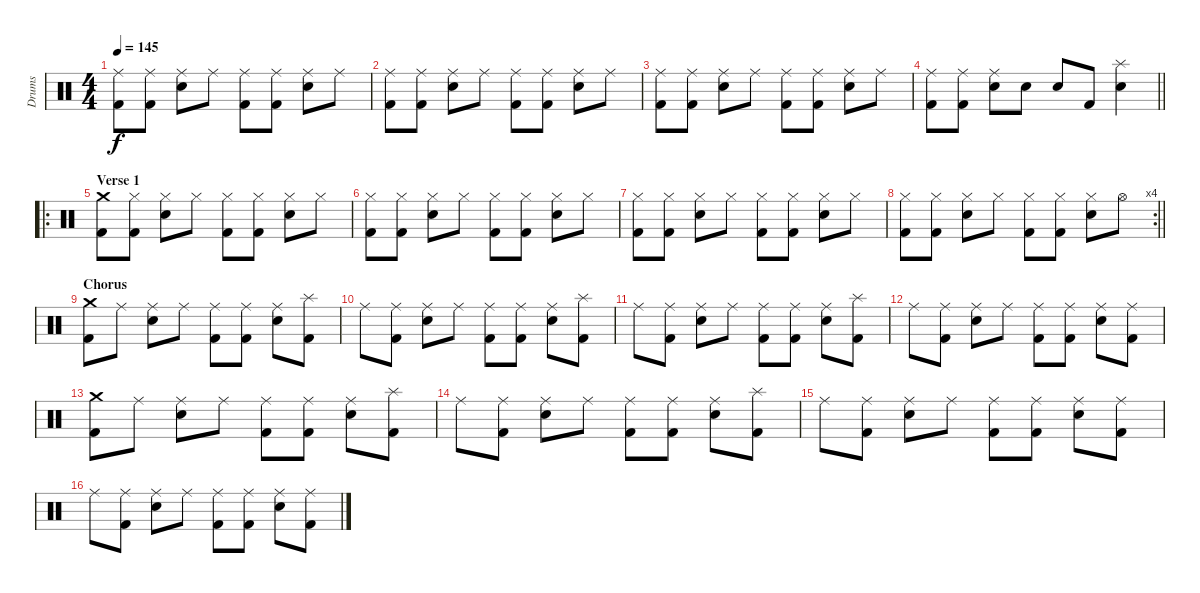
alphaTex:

\track ("Drums" "Drums") {instrument percussion}
\staff {score}
\articulation defaults
\ts (4 4)
\tempo 145
\clef neutral
\ks c
("Ride (middle)" "Kick (hit) 2").8{dy f} ("Ride (middle)" "Kick (hit) 2").8 ("Ride (middle)" "Snare (hit) 2").8 "Ride (middle)".8 ("Ride (middle)" "Kick (hit) 2").8 ("Ride (middle)" "Kick (hit) 2").8 ("Ride (middle)" "Snare (hit) 2").8 "Ride (middle)".8 |
("Ride (middle)" "Kick (hit) 2").8 ("Ride (middle)" "Kick (hit) 2").8 ("Ride (middle)" "Snare (hit) 2").8 "Ride (middle)".8 ("Ride (middle)" "Kick (hit) 2").8 ("Ride (middle)" "Kick (hit) 2").8 ("Ride (middle)" "Snare (hit) 2").8 "Ride (middle)".8 |
("Ride (middle)" "Kick (hit) 2").8 ("Ride (middle)" "Kick (hit) 2").8 ("Ride (middle)" "Snare (hit) 2").8 "Ride (middle)".8 ("Ride (middle)" "Kick (hit) 2").8 ("Ride (middle)" "Kick (hit) 2").8 ("Ride (middle)" "Snare (hit) 2").8 "Ride (middle)".8 |
\barLineRight lightlight
("Ride (middle)" "Kick (hit) 2").8 ("Ride (middle)" "Kick (hit) 2").8 ("Ride (middle)" "Snare (hit) 2").8 "Snare (hit) 2".8 "Snare (hit) 2".8 "Kick (hit) 2".8 ("Splash (hit)" "Snare (hit) 2").4 |
\ro
\section ("" "Verse 1")
("Crash medium (hit)" "Kick (hit) 2").8 ("Hi-Hat (closed)" "Kick (hit) 2").8 ("Hi-Hat (closed)" "Snare (hit) 2").8 "Hi-Hat (closed)".8 ("Hi-Hat (closed)" "Kick (hit) 2").8 ("Hi-Hat (closed)" "Kick (hit) 2").8 ("Hi-Hat (closed)" "Snare (hit) 2").8 "Hi-Hat (closed)".8 |
("Hi-Hat (closed)" "Kick (hit) 2").8 ("Hi-Hat (closed)" "Kick (hit) 2").8 ("Hi-Hat (closed)" "Snare (hit) 2").8 "Hi-Hat (closed)".8 ("Hi-Hat (closed)" "Kick (hit) 2").8 ("Hi-Hat (closed)" "Kick (hit) 2").8 ("Hi-Hat (closed)" "Snare (hit) 2").8 "Hi-Hat (closed)".8 |
("Hi-Hat (closed)" "Kick (hit) 2").8 ("Hi-Hat (closed)" "Kick (hit) 2").8 ("Hi-Hat (closed)" "Snare (hit) 2").8 "Hi-Hat (closed)".8 ("Hi-Hat (closed)" "Kick (hit) 2").8 ("Hi-Hat (closed)" "Kick (hit) 2").8 ("Hi-Hat (closed)" "Snare (hit) 2").8 "Hi-Hat (closed)".8 |
\rc 4
\barLineRight lightlight
("Hi-Hat (closed)" "Kick (hit) 2").8 ("Hi-Hat (closed)" "Kick (hit) 2").8 ("Hi-Hat (closed)" "Snare (hit) 2").8 "Hi-Hat (closed)".8 ("Hi-Hat (closed)" "Kick (hit) 2").8 ("Hi-Hat (closed)" "Kick (hit) 2").8 ("Hi-Hat (closed)" "Snare (hit) 2").8 "Hi-Hat (open)".8 |
\section ("" "Chorus")
("Crash medium (hit)" "Kick (hit) 2").8 "Ride (middle)".8 ("Ride (middle)" "Snare (hit) 2").8 "Ride (middle)".8 ("Ride (middle)" "Kick (hit) 2").8 ("Ride (middle)" "Kick (hit) 2").8 ("Ride (middle)" "Snare (hit) 2").8 ("Splash (hit)" "Kick (hit) 2").8 |
"Ride (middle)".8 ("Ride (middle)" "Kick (hit) 2").8 ("Ride (middle)" "Snare (hit) 2").8 "Ride (middle)".8 ("Ride (middle)" "Kick (hit) 2").8 ("Ride (middle)" "Kick (hit) 2").8 ("Ride (middle)" "Snare (hit) 2").8 ("Splash (hit)" "Kick (hit) 2").8 |
"Ride (middle)".8 ("Ride (middle)" "Kick (hit) 2").8 ("Ride (middle)" "Snare (hit) 2").8 "Ride (middle)".8 ("Ride (middle)" "Kick (hit) 2").8 ("Ride (middle)" "Kick (hit) 2").8 ("Ride (middle)" "Snare (hit) 2").8 ("Splash (hit)" "Kick (hit) 2").8 |
"Ride (middle)".8 ("Ride (middle)" "Kick (hit) 2").8 ("Ride (middle)" "Snare (hit) 2").8 "Ride (middle)".8 ("Ride (middle)" "Kick (hit) 2").8 ("Ride (middle)" "Kick (hit) 2").8 ("Ride (middle)" "Snare (hit) 2").8 ("Ride (middle)" "Kick (hit) 2").8 |
("Crash medium (hit)" "Kick (hit) 2").8 "Ride (middle)".8 ("Ride (middle)" "Snare (hit) 2").8 "Ride (middle)".8 ("Ride (middle)" "Kick (hit) 2").8 ("Ride (middle)" "Kick (hit) 2").8 ("Ride (middle)" "Snare (hit) 2").8 ("Splash (hit)" "Kick (hit) 2").8 |
"Ride (middle)".8 ("Ride (middle)" "Kick (hit) 2").8 ("Ride (middle)" "Snare (hit) 2").8 "Ride (middle)".8 ("Ride (middle)" "Kick (hit) 2").8 ("Ride (middle)" "Kick (hit) 2").8 ("Ride (middle)" "Snare (hit) 2").8 ("Splash (hit)" "Kick (hit) 2").8 |
"Ride (middle)".8 ("Ride (middle)" "Kick (hit) 2").8 ("Ride (middle)" "Snare (hit) 2").8 "Ride (middle)".8 ("Ride (middle)" "Kick (hit) 2").8 ("Ride (middle)" "Kick (hit) 2").8 ("Ride (middle)" "Snare (hit) 2").8 ("Ride (middle)" "Kick (hit) 2").8 |
"Ride (middle)".8 ("Ride (middle)" "Kick (hit) 2").8 ("Ride (middle)" "Snare (hit) 2").8 "Ride (middle)".8 ("Ride (middle)" "Kick (hit) 2").8 ("Ride (middle)" "Kick (hit) 2").8 ("Ride (middle)" "Snare (hit) 2").8 ("Ride (middle)" "Kick (hit) 2").8
